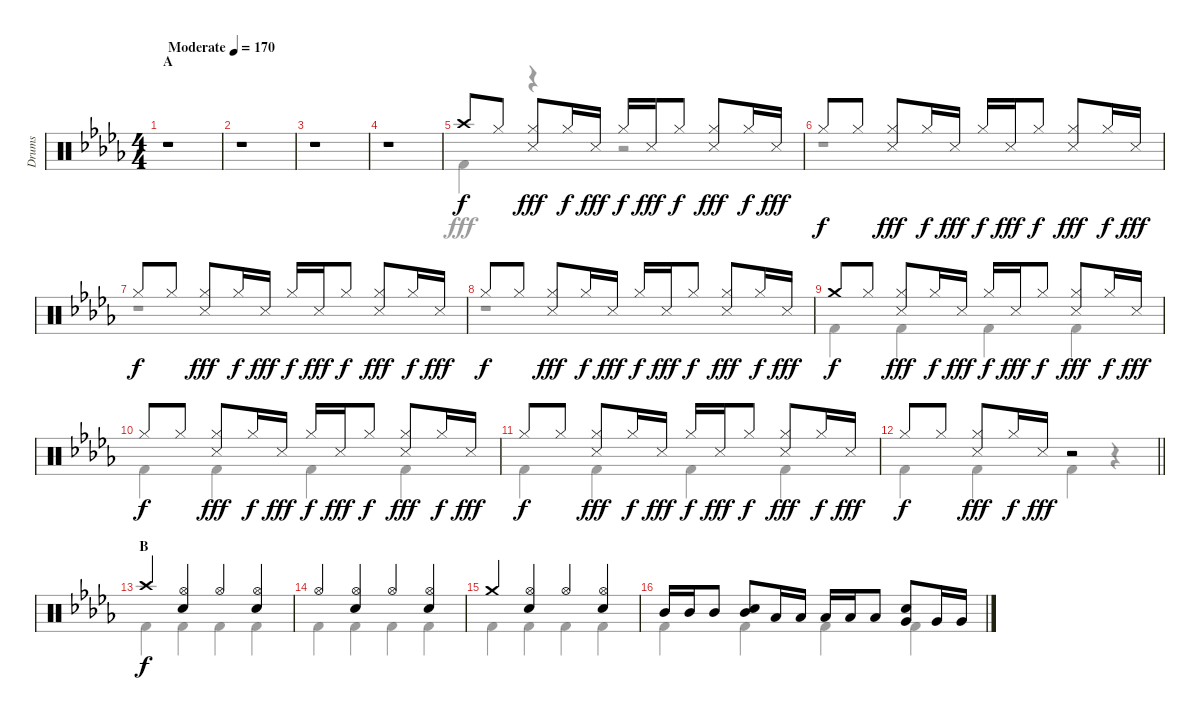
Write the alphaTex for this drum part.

\track ("Drums" "Drums") {instrument percussion}
\staff {score}
\articulation defaults
\voice
\ts (4 4)
\section ("" "A")
\tempo (170 "Moderate")
\clef neutral
\ks db
r.1{dy f} |
r.1 |
r.1 |
r.1 |
"Crash high (hit)".8 "Hi-Hat (closed)".8 ("Hi-Hat (closed)" "Snare (side stick) 3").8{dy fff} "Hi-Hat (closed)".16{dy f} "Snare (side stick) 3".16{dy fff} "Hi-Hat (closed)".16{dy f} "Snare (side stick) 3".16{dy fff} "Hi-Hat (closed)".8{dy f} ("Hi-Hat (closed)" "Snare (side stick) 3").8{dy fff} "Hi-Hat (closed)".16{dy f} "Snare (side stick) 3".16{dy fff} |
"Hi-Hat (closed)".8{dy f} "Hi-Hat (closed)".8 ("Hi-Hat (closed)" "Snare (side stick) 3").8{dy fff} "Hi-Hat (closed)".16{dy f} "Snare (side stick) 3".16{dy fff} "Hi-Hat (closed)".16{dy f} "Snare (side stick) 3".16{dy fff} "Hi-Hat (closed)".8{dy f} ("Hi-Hat (closed)" "Snare (side stick) 3").8{dy fff} "Hi-Hat (closed)".16{dy f} "Snare (side stick) 3".16{dy fff} |
"Hi-Hat (closed)".8{dy f} "Hi-Hat (closed)".8 ("Hi-Hat (closed)" "Snare (side stick) 3").8{dy fff} "Hi-Hat (closed)".16{dy f} "Snare (side stick) 3".16{dy fff} "Hi-Hat (closed)".16{dy f} "Snare (side stick) 3".16{dy fff} "Hi-Hat (closed)".8{dy f} ("Hi-Hat (closed)" "Snare (side stick) 3").8{dy fff} "Hi-Hat (closed)".16{dy f} "Snare (side stick) 3".16{dy fff} |
"Hi-Hat (closed)".8{dy f} "Hi-Hat (closed)".8 ("Hi-Hat (closed)" "Snare (side stick) 3").8{dy fff} "Hi-Hat (closed)".16{dy f} "Snare (side stick) 3".16{dy fff} "Hi-Hat (closed)".16{dy f} "Snare (side stick) 3".16{dy fff} "Hi-Hat (closed)".8{dy f} ("Hi-Hat (closed)" "Snare (side stick) 3").8{dy fff} "Hi-Hat (closed)".16{dy f} "Snare (side stick) 3".16{dy fff} |
"Crash medium (hit)".8{dy f} "Hi-Hat (closed)".8 ("Hi-Hat (closed)" "Snare (side stick) 3").8{dy fff} "Hi-Hat (closed)".16{dy f} "Snare (side stick) 3".16{dy fff} "Hi-Hat (closed)".16{dy f} "Snare (side stick) 3".16{dy fff} "Hi-Hat (closed)".8{dy f} ("Hi-Hat (closed)" "Snare (side stick) 3").8{dy fff} "Hi-Hat (closed)".16{dy f} "Snare (side stick) 3".16{dy fff} |
"Hi-Hat (closed)".8{dy f} "Hi-Hat (closed)".8 ("Hi-Hat (closed)" "Snare (side stick) 3").8{dy fff} "Hi-Hat (closed)".16{dy f} "Snare (side stick) 3".16{dy fff} "Hi-Hat (closed)".16{dy f} "Snare (side stick) 3".16{dy fff} "Hi-Hat (closed)".8{dy f} ("Hi-Hat (closed)" "Snare (side stick) 3").8{dy fff} "Hi-Hat (closed)".16{dy f} "Snare (side stick) 3".16{dy fff} |
"Hi-Hat (closed)".8{dy f} "Hi-Hat (closed)".8 ("Hi-Hat (closed)" "Snare (side stick) 3").8{dy fff} "Hi-Hat (closed)".16{dy f} "Snare (side stick) 3".16{dy fff} "Hi-Hat (closed)".16{dy f} "Snare (side stick) 3".16{dy fff} "Hi-Hat (closed)".8{dy f} ("Hi-Hat (closed)" "Snare (side stick) 3").8{dy fff} "Hi-Hat (closed)".16{dy f} "Snare (side stick) 3".16{dy fff} |
\barLineRight lightlight "Hi-Hat (closed)".8{dy f} "Hi-Hat (closed)".8
("Hi-Hat (closed)" "Snare (side stick) 3").8{dy fff} "Hi-Hat (closed)".16{dy f} "Snare (side stick) 3".16{dy fff} r.2 |
\section ("" "B")
"Crash high (hit)".4{dy f} ("Hi-Hat (open)" "Snare (hit) 2").4 "Hi-Hat (open)".4 ("Hi-Hat (open)" "Snare (hit) 2").4 |
"Hi-Hat (open)".4 ("Hi-Hat (open)" "Snare (hit) 2").4 "Hi-Hat (open)".4 ("Hi-Hat (open)" "Snare (hit) 2").4 |
"Crash medium (hit)".4 ("Hi-Hat (open)" "Snare (hit) 2").4 "Hi-Hat (open)".4 ("Hi-Hat (open)" "Snare (hit) 2").4 |
"Mid Tom (hit)".16 "Mid Tom (hit)".16 "Mid Tom (hit)".8 ("Mid Tom (hit)" "Snare (hit) 2").8 "Low Tom (hit)".16 "Low Tom (hit)".16 "Low Tom (hit)".16 "Low Tom (hit)".16 "Low Tom (hit)".8 ("Snare (hit) 2" "Very Low Tom (hit)").8 "Very Low Tom (hit)".16 "Very Low Tom (hit)".16
\voice
\clef neutral
\ottava regular
\simile none
\ks db
r.1{dy fff} |
r.1 |
r.1 |
r.1 |
"Kick (hit) 2".4 r.4 r.2 |
r.1 |
r.1 |
r.1 |
"Kick (hit) 2".4 "Kick (hit) 2".4 "Kick (hit) 2".4 "Kick (hit) 2".4 |
"Kick (hit) 2".4 "Kick (hit) 2".4 "Kick (hit) 2".4 "Kick (hit) 2".4 |
"Kick (hit) 2".4 "Kick (hit) 2".4 "Kick (hit) 2".4 "Kick (hit) 2".4 |
\barLineRight lightlight "Kick (hit) 2".4 "Kick (hit) 2".4 "Kick (hit) 2".4
r.4 |
"Kick (hit) 2".4 "Kick (hit) 2".4 "Kick (hit) 2".4 "Kick (hit) 2".4 |
"Kick (hit) 2".4 "Kick (hit) 2".4 "Kick (hit) 2".4 "Kick (hit) 2".4 |
"Kick (hit) 2".4 "Kick (hit) 2".4 "Kick (hit) 2".4 "Kick (hit) 2".4 |
"Kick (hit) 2".4 "Kick (hit) 2".4 "Kick (hit) 2".4 "Kick (hit) 2".4
